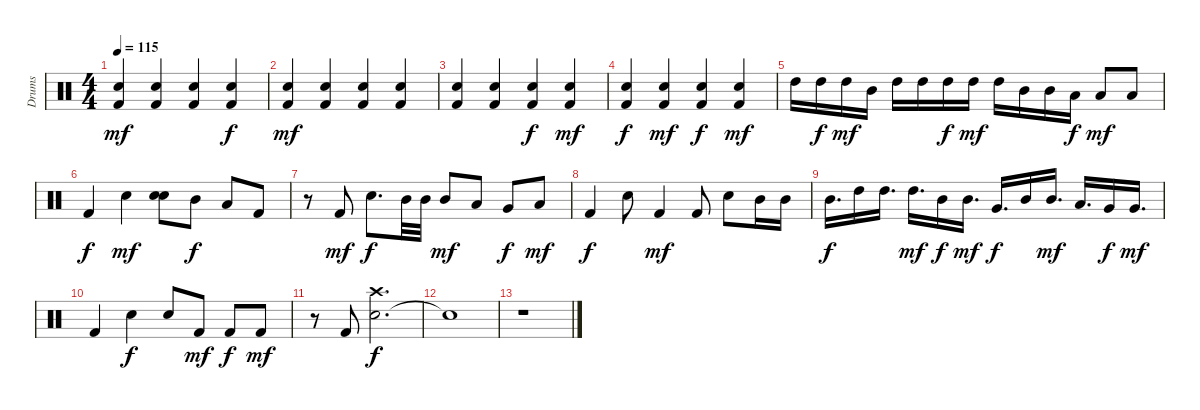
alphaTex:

\track ("Drums" "Drums") {instrument percussion}
\staff {score}
\articulation defaults
\ts (4 4)
\tempo 115
\clef neutral
\ks c
("Kick (hit) 2" "Electric Snare (hit)").4{dy mf} ("Kick (hit) 2" "Electric Snare (hit)").4 ("Kick (hit) 2" "Electric Snare (hit)").4 ("Kick (hit) 2" "Electric Snare (hit)").4{dy f} |
("Kick (hit) 2" "Electric Snare (hit)").4{dy mf} ("Kick (hit) 2" "Electric Snare (hit)").4 ("Kick (hit) 2" "Electric Snare (hit)").4 ("Kick (hit) 2" "Electric Snare (hit)").4 |
("Kick (hit) 2" "Electric Snare (hit)").4 ("Kick (hit) 2" "Electric Snare (hit)").4 ("Kick (hit) 2" "Electric Snare (hit)").4{dy f} ("Kick (hit) 2" "Electric Snare (hit)").4{dy mf} |
("Kick (hit) 2" "Electric Snare (hit)").4{dy f} ("Kick (hit) 2" "Electric Snare (hit)").4{dy mf} ("Kick (hit) 2" "Electric Snare (hit)").4{dy f} ("Kick (hit) 2" "Electric Snare (hit)").4{dy mf} |
"High Tom (hit)".16 "High Tom (hit)".16{dy f} "High Tom (hit)".16{dy mf} "Mid Tom (hit)".16 "High Tom (hit)".16 "High Tom (hit)".16 "High Tom (hit)".16{dy f} "High Tom (hit)".16{dy mf} "High Tom (hit)".16 "Mid Tom (hit)".16 "Mid Tom (hit)".16 "Low Tom (hit)".16{dy f} "Low Tom (hit)".8{dy mf} "Low Tom (hit)".8 |
"Kick (hit) 2".4{dy f} "Electric Snare (hit)".4{dy mf} ("Electric Snare (hit)" "Electric Snare (hit)").8 "Mid Tom (hit)".8{dy f} "Low Tom (hit)".8 "Kick (hit) 2".8 |
r.8 "Kick (hit) 2".8{dy mf} "Electric Snare (hit)".8{d dy f} "Mid Tom (hit)".32 "Mid Tom (hit)".32 "Mid Tom (hit)".8{dy mf} "Low Tom (hit)".8 "Very Low Tom (hit)".8{dy f} "Low Floor Tom (hit)".8{dy mf} |
"Kick (hit) 2".4{dy f} "Electric Snare (hit)".8 "Kick (hit) 2".4{dy mf} "Kick (hit) 2".8 "Electric Snare (hit)".8 "Mid Tom (hit)".16 "Mid Tom (hit)".16 |
"Mid Tom (hit)".16{d dy f} "High Tom (hit)".16 "High Tom (hit)".16{d} "High Tom (hit)".16{d dy mf} "Mid Tom (hit)".16{dy f} "Mid Tom (hit)".16{d dy mf} "Very Low Tom (hit)".16{d dy f} "Mid Tom (hit)".16 "Mid Tom (hit)".16{d dy mf} "Low Tom (hit)".16{d} "Very Low Tom (hit)".16{dy f} "Very Low Tom (hit)".16{d dy mf} |
"Kick (hit) 2".4 "Electric Snare (hit)".4{dy f} "Electric Snare (hit)".8 "Kick (hit) 2".8{dy mf} "Kick (hit) 2".8{dy f} "Kick (hit) 2".8{dy mf} |
r.8 "Kick (hit) 2".8 ("Electric Snare (hit)" "Crash high (hit)").2{d dy f} |
"Snare (hit)"{t}.1 |
r.1
